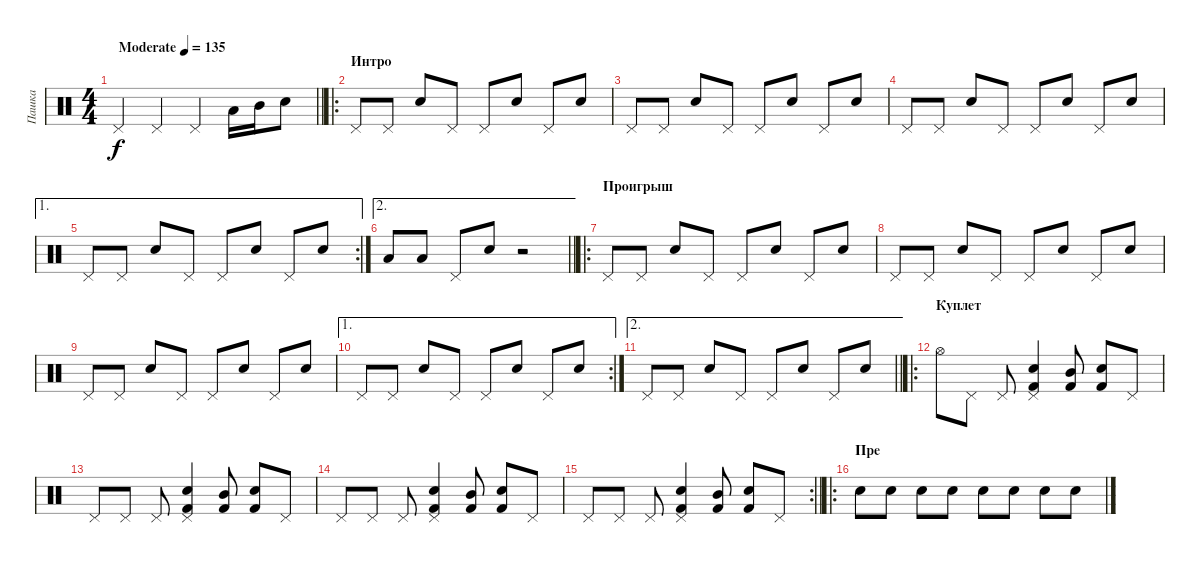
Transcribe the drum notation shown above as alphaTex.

\track ("Пашка" "Пашка") {instrument percussion}
\staff {score}
\articulation defaults
\ts (4 4)
\tempo (135 "Moderate")
\clef neutral
\barLineRight lightlight
\ks c "Pedal Hi-Hat (hit)".4{dy f} "Pedal Hi-Hat (hit)".4 "Pedal Hi-Hat (hit)".4 "Low Tom (hit)".16 "Mid Tom (hit)".16 "Snare (hit) 2".8
|
\ro
\section ("" "Интро")
"Pedal Hi-Hat (hit)".8 "Pedal Hi-Hat (hit)".8 "Snare (hit) 2".8 "Pedal Hi-Hat (hit)".8 "Pedal Hi-Hat (hit)".8 "Snare (hit) 2".8 "Pedal Hi-Hat (hit)".8 "Snare (hit) 2".8 |
"Pedal Hi-Hat (hit)".8 "Pedal Hi-Hat (hit)".8 "Snare (hit) 2".8 "Pedal Hi-Hat (hit)".8 "Pedal Hi-Hat (hit)".8 "Snare (hit) 2".8 "Pedal Hi-Hat (hit)".8 "Snare (hit) 2".8 |
"Pedal Hi-Hat (hit)".8 "Pedal Hi-Hat (hit)".8 "Snare (hit) 2".8 "Pedal Hi-Hat (hit)".8 "Pedal Hi-Hat (hit)".8 "Snare (hit) 2".8 "Pedal Hi-Hat (hit)".8 "Snare (hit) 2".8 |
\ae 1
\rc 2 "Pedal Hi-Hat (hit)".8 "Pedal Hi-Hat (hit)".8 "Snare (hit) 2".8 "Pedal Hi-Hat (hit)".8 "Pedal Hi-Hat (hit)".8 "Snare (hit) 2".8 "Pedal Hi-Hat (hit)".8 "Snare (hit) 2".8
|
\ae 2
\barLineRight lightlight "Low Tom (hit)".8 "Low Tom (hit)".8 "Pedal Hi-Hat (hit)".8 "Snare (hit) 2".8
r.2 |
\ro
\section ("" "Проигрыш")
"Pedal Hi-Hat (hit)".8 "Pedal Hi-Hat (hit)".8 "Snare (hit) 2".8 "Pedal Hi-Hat (hit)".8 "Pedal Hi-Hat (hit)".8 "Snare (hit) 2".8 "Pedal Hi-Hat (hit)".8 "Snare (hit) 2".8 |
"Pedal Hi-Hat (hit)".8 "Pedal Hi-Hat (hit)".8 "Snare (hit) 2".8 "Pedal Hi-Hat (hit)".8 "Pedal Hi-Hat (hit)".8 "Snare (hit) 2".8 "Pedal Hi-Hat (hit)".8 "Snare (hit) 2".8 |
"Pedal Hi-Hat (hit)".8 "Pedal Hi-Hat (hit)".8 "Snare (hit) 2".8 "Pedal Hi-Hat (hit)".8 "Pedal Hi-Hat (hit)".8 "Snare (hit) 2".8 "Pedal Hi-Hat (hit)".8 "Snare (hit) 2".8 |
\ae 1
\rc 2 "Pedal Hi-Hat (hit)".8 "Pedal Hi-Hat (hit)".8 "Snare (hit) 2".8 "Pedal Hi-Hat (hit)".8 "Pedal Hi-Hat (hit)".8 "Snare (hit) 2".8 "Pedal Hi-Hat (hit)".8 "Snare (hit) 2".8
|
\ae 2
\barLineRight lightlight "Pedal Hi-Hat (hit)".8 "Pedal Hi-Hat (hit)".8 "Snare (hit) 2".8 "Pedal Hi-Hat (hit)".8 "Pedal Hi-Hat (hit)".8 "Snare (hit) 2".8 "Pedal Hi-Hat (hit)".8 "Snare (hit) 2".8
|
\ro
\section ("" "Куплет")
"Hi-Hat (open)".8 "Pedal Hi-Hat (hit)".8 "Pedal Hi-Hat (hit)".8 ("Pedal Hi-Hat (hit)" "Snare (hit) 2" "Kick (hit) 2").4 ("Mid Tom (hit)" "Kick (hit) 2").8 ("Snare (hit) 2" "Kick (hit) 2").8 "Pedal Hi-Hat (hit)".8 |
"Pedal Hi-Hat (hit)".8 "Pedal Hi-Hat (hit)".8 "Pedal Hi-Hat (hit)".8 ("Pedal Hi-Hat (hit)" "Snare (hit) 2" "Kick (hit) 2").4 ("Mid Tom (hit)" "Kick (hit) 2").8 ("Snare (hit) 2" "Kick (hit) 2").8 "Pedal Hi-Hat (hit)".8 |
"Pedal Hi-Hat (hit)".8 "Pedal Hi-Hat (hit)".8 "Pedal Hi-Hat (hit)".8 ("Pedal Hi-Hat (hit)" "Snare (hit) 2" "Kick (hit) 2").4 ("Mid Tom (hit)" "Kick (hit) 2").8 ("Snare (hit) 2" "Kick (hit) 2").8 "Pedal Hi-Hat (hit)".8 |
\rc 2
\barLineRight lightlight "Pedal Hi-Hat (hit)".8 "Pedal Hi-Hat (hit)".8 "Pedal Hi-Hat (hit)".8
("Pedal Hi-Hat (hit)" "Snare (hit) 2" "Kick (hit) 2").4 ("Mid Tom (hit)" "Kick (hit) 2").8 ("Snare (hit) 2" "Kick (hit) 2").8 "Pedal Hi-Hat (hit)".8 |
\ro
\section ("" "Пре")
"Snare (hit) 2".8 "Snare (hit) 2".8 "Snare (hit) 2".8 "Snare (hit) 2".8 "Snare (hit) 2".8 "Snare (hit) 2".8 "Snare (hit) 2".8 "Snare (hit) 2".8
